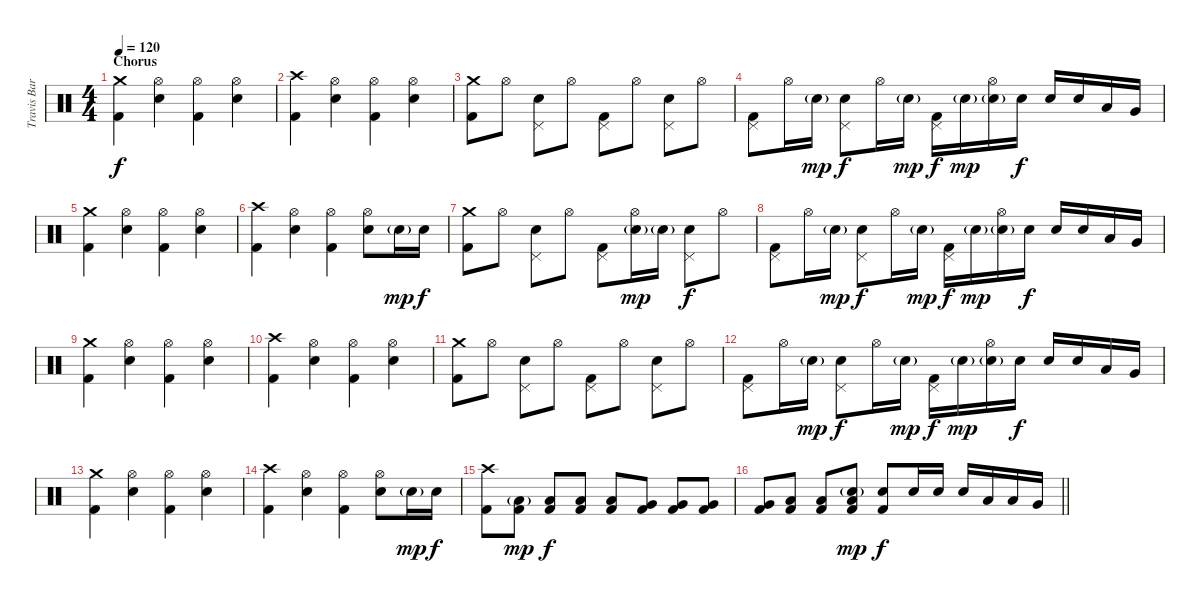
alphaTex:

\track ("Travis Barker - Drums" "Travis Bar") {instrument percussion}
\staff {score}
\articulation defaults
\ts (4 4)
\section ("" "Chorus")
\tempo 120
\clef neutral
\ks c
("Crash medium (hit)" "Kick (hit) 2").4{dy f} ("Hi-Hat (open)" "Electric Snare (hit)").4 ("Hi-Hat (open)" "Kick (hit) 2").4 ("Hi-Hat (open)" "Electric Snare (hit)").4 |
("Crash high (hit)" "Kick (hit) 2").4 ("Hi-Hat (open)" "Electric Snare (hit)").4 ("Hi-Hat (open)" "Kick (hit) 2").4 ("Hi-Hat (open)" "Electric Snare (hit)").4 |
("Crash medium (hit)" "Kick (hit) 2").8 "Hi-Hat (open)".8 ("Pedal Hi-Hat (hit)" "Electric Snare (hit)").8 "Hi-Hat (open)".8 ("Pedal Hi-Hat (hit)" "Kick (hit) 2").8 "Hi-Hat (open)".8 ("Pedal Hi-Hat (hit)" "Electric Snare (hit)").8 "Hi-Hat (open)".8 |
("Pedal Hi-Hat (hit)" "Kick (hit) 2").8 "Hi-Hat (open)".16 "Electric Snare (hit)"{g}.16{dy mp} ("Pedal Hi-Hat (hit)" "Electric Snare (hit)").8{dy f} "Hi-Hat (open)".16 "Electric Snare (hit)"{g}.16{dy mp} ("Pedal Hi-Hat (hit)" "Kick (hit) 2").16{dy f} "Electric Snare (hit)"{g}.16{dy mp} ("Hi-Hat (open)" "Electric Snare (hit)"{g}).16 "Electric Snare (hit)".16{dy f} "Electric Snare (hit)".16 "Electric Snare (hit)".16 "Low Tom (hit)".16 "Very Low Tom (hit)".16 |
("Crash medium (hit)" "Kick (hit) 2").4 ("Hi-Hat (open)" "Electric Snare (hit)").4 ("Hi-Hat (open)" "Kick (hit) 2").4 ("Hi-Hat (open)" "Electric Snare (hit)").4 |
("Crash high (hit)" "Kick (hit) 2").4 ("Hi-Hat (open)" "Electric Snare (hit)").4 ("Hi-Hat (open)" "Kick (hit) 2").4 ("Hi-Hat (open)" "Electric Snare (hit)").8 "Electric Snare (hit)"{g}.16{dy mp} "Electric Snare (hit)".16{dy f} |
("Crash medium (hit)" "Kick (hit) 2").8 "Hi-Hat (open)".8 ("Pedal Hi-Hat (hit)" "Electric Snare (hit)").8 "Hi-Hat (open)".8 ("Pedal Hi-Hat (hit)" "Kick (hit) 2").8 ("Hi-Hat (open)" "Electric Snare (hit)"{g}).16{dy mp} "Electric Snare (hit)"{g}.16 ("Pedal Hi-Hat (hit)" "Electric Snare (hit)").8{dy f} "Hi-Hat (open)".8 |
("Pedal Hi-Hat (hit)" "Kick (hit) 2").8 "Hi-Hat (open)".16 "Electric Snare (hit)"{g}.16{dy mp} ("Pedal Hi-Hat (hit)" "Electric Snare (hit)").8{dy f} "Hi-Hat (open)".16 "Electric Snare (hit)"{g}.16{dy mp} ("Pedal Hi-Hat (hit)" "Kick (hit) 2").16{dy f} "Electric Snare (hit)"{g}.16{dy mp} ("Hi-Hat (open)" "Electric Snare (hit)"{g}).16 "Electric Snare (hit)".16{dy f} "Electric Snare (hit)".16 "Electric Snare (hit)".16 "Low Tom (hit)".16 "Very Low Tom (hit)".16 |
("Crash medium (hit)" "Kick (hit) 2").4 ("Hi-Hat (open)" "Electric Snare (hit)").4 ("Hi-Hat (open)" "Kick (hit) 2").4 ("Hi-Hat (open)" "Electric Snare (hit)").4 |
("Crash high (hit)" "Kick (hit) 2").4 ("Hi-Hat (open)" "Electric Snare (hit)").4 ("Hi-Hat (open)" "Kick (hit) 2").4 ("Hi-Hat (open)" "Electric Snare (hit)").4 |
("Crash medium (hit)" "Kick (hit) 2").8 "Hi-Hat (open)".8 ("Pedal Hi-Hat (hit)" "Electric Snare (hit)").8 "Hi-Hat (open)".8 ("Pedal Hi-Hat (hit)" "Kick (hit) 2").8 "Hi-Hat (open)".8 ("Pedal Hi-Hat (hit)" "Electric Snare (hit)").8 "Hi-Hat (open)".8 |
("Pedal Hi-Hat (hit)" "Kick (hit) 2").8 "Hi-Hat (open)".16 "Electric Snare (hit)"{g}.16{dy mp} ("Pedal Hi-Hat (hit)" "Electric Snare (hit)").8{dy f} "Hi-Hat (open)".16 "Electric Snare (hit)"{g}.16{dy mp} ("Pedal Hi-Hat (hit)" "Kick (hit) 2").16{dy f} "Electric Snare (hit)"{g}.16{dy mp} ("Hi-Hat (open)" "Electric Snare (hit)"{g}).16 "Electric Snare (hit)".16{dy f} "Electric Snare (hit)".16 "Electric Snare (hit)".16 "Low Tom (hit)".16 "Very Low Tom (hit)".16 |
("Crash medium (hit)" "Kick (hit) 2").4 ("Hi-Hat (open)" "Electric Snare (hit)").4 ("Hi-Hat (open)" "Kick (hit) 2").4 ("Hi-Hat (open)" "Electric Snare (hit)").4 |
("Crash high (hit)" "Kick (hit) 2").4 ("Hi-Hat (open)" "Electric Snare (hit)").4 ("Hi-Hat (open)" "Kick (hit) 2").4 ("Hi-Hat (open)" "Electric Snare (hit)").8 "Electric Snare (hit)"{g}.16{dy mp} "Electric Snare (hit)".16{dy f} |
("Crash high (hit)" "Kick (hit) 2").8 ("Low Floor Tom (hit)"{g} "Kick (hit) 2").8{dy mp} ("Low Floor Tom (hit)" "Kick (hit) 2").8{dy f} ("Low Floor Tom (hit)" "Kick (hit) 2").8 ("Low Floor Tom (hit)" "Kick (hit) 2").8 ("Very Low Tom (hit)" "Kick (hit) 2").8 ("Very Low Tom (hit)" "Kick (hit) 2").8 ("Very Low Tom (hit)" "Kick (hit) 2").8 |
\barLineRight lightlight
("Very Low Tom (hit)" "Kick (hit) 2").8 ("Low Tom (hit)" "Kick (hit) 2").8 ("Low Tom (hit)" "Kick (hit) 2").8 ("Electric Snare (hit)"{g} "Low Tom (hit)" "Kick (hit) 2").8{dy mp} ("Electric Snare (hit)" "Kick (hit) 2").8{dy f} "Electric Snare (hit)".16 "Electric Snare (hit)".16 "Electric Snare (hit)".16 "Low Tom (hit)".16 "Low Tom (hit)".16 "Very Low Tom (hit)".16
